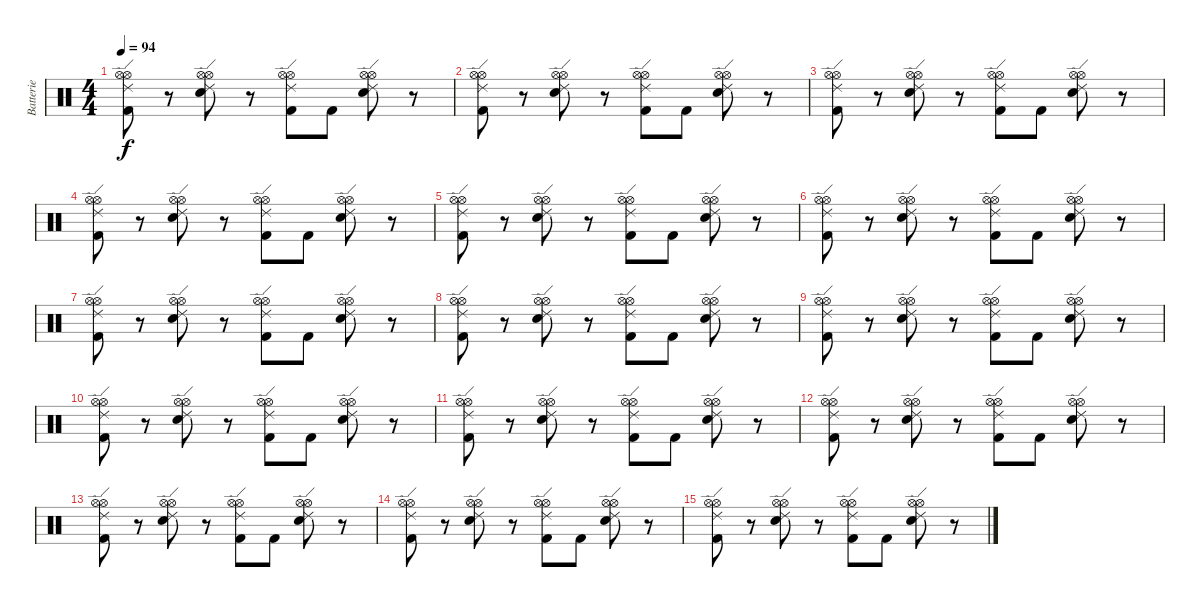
\track ("Batterie" "Batterie") {instrument percussion}
\staff {score}
\articulation defaults
\ts (4 4)
\tempo 94
\clef neutral
\ks c
("Hi-Hat (open)" "Hi-Hat (open)" "Ride (edge) 2" "Kick (hit) 2").8{dy f} r.8 ("Snare (hit) 2" "Hi-Hat (open)" "Hi-Hat (open)" "Ride (edge) 2").8 r.8 ("Hi-Hat (open)" "Hi-Hat (open)" "Ride (edge) 2" "Kick (hit) 2").8 "Kick (hit) 2".8 ("Snare (hit) 2" "Hi-Hat (open)" "Hi-Hat (open)" "Ride (edge) 2").8 r.8 |
("Hi-Hat (open)" "Hi-Hat (open)" "Ride (edge) 2" "Kick (hit) 2").8 r.8 ("Snare (hit) 2" "Hi-Hat (open)" "Hi-Hat (open)" "Ride (edge) 2").8 r.8 ("Hi-Hat (open)" "Hi-Hat (open)" "Ride (edge) 2" "Kick (hit) 2").8 "Kick (hit) 2".8 ("Snare (hit) 2" "Hi-Hat (open)" "Hi-Hat (open)" "Ride (edge) 2").8 r.8 |
("Hi-Hat (open)" "Hi-Hat (open)" "Ride (edge) 2" "Kick (hit) 2").8 r.8 ("Snare (hit) 2" "Hi-Hat (open)" "Hi-Hat (open)" "Ride (edge) 2").8 r.8 ("Hi-Hat (open)" "Hi-Hat (open)" "Ride (edge) 2" "Kick (hit) 2").8 "Kick (hit) 2".8 ("Snare (hit) 2" "Hi-Hat (open)" "Hi-Hat (open)" "Ride (edge) 2").8 r.8 |
("Hi-Hat (open)" "Hi-Hat (open)" "Ride (edge) 2" "Kick (hit) 2").8 r.8 ("Snare (hit) 2" "Hi-Hat (open)" "Hi-Hat (open)" "Ride (edge) 2").8 r.8 ("Hi-Hat (open)" "Hi-Hat (open)" "Ride (edge) 2" "Kick (hit) 2").8 "Kick (hit) 2".8 ("Snare (hit) 2" "Hi-Hat (open)" "Hi-Hat (open)" "Ride (edge) 2").8 r.8 |
("Hi-Hat (open)" "Hi-Hat (open)" "Ride (edge) 2" "Kick (hit) 2").8 r.8 ("Snare (hit) 2" "Hi-Hat (open)" "Hi-Hat (open)" "Ride (edge) 2").8 r.8 ("Hi-Hat (open)" "Hi-Hat (open)" "Ride (edge) 2" "Kick (hit) 2").8 "Kick (hit) 2".8 ("Snare (hit) 2" "Hi-Hat (open)" "Hi-Hat (open)" "Ride (edge) 2").8 r.8 |
("Hi-Hat (open)" "Hi-Hat (open)" "Ride (edge) 2" "Kick (hit) 2").8 r.8 ("Snare (hit) 2" "Hi-Hat (open)" "Hi-Hat (open)" "Ride (edge) 2").8 r.8 ("Hi-Hat (open)" "Hi-Hat (open)" "Ride (edge) 2" "Kick (hit) 2").8 "Kick (hit) 2".8 ("Snare (hit) 2" "Hi-Hat (open)" "Hi-Hat (open)" "Ride (edge) 2").8 r.8 |
("Hi-Hat (open)" "Hi-Hat (open)" "Ride (edge) 2" "Kick (hit) 2").8 r.8 ("Snare (hit) 2" "Hi-Hat (open)" "Hi-Hat (open)" "Ride (edge) 2").8 r.8 ("Hi-Hat (open)" "Hi-Hat (open)" "Ride (edge) 2" "Kick (hit) 2").8 "Kick (hit) 2".8 ("Snare (hit) 2" "Hi-Hat (open)" "Hi-Hat (open)" "Ride (edge) 2").8 r.8 |
("Hi-Hat (open)" "Hi-Hat (open)" "Ride (edge) 2" "Kick (hit) 2").8 r.8 ("Snare (hit) 2" "Hi-Hat (open)" "Hi-Hat (open)" "Ride (edge) 2").8 r.8 ("Hi-Hat (open)" "Hi-Hat (open)" "Ride (edge) 2" "Kick (hit) 2").8 "Kick (hit) 2".8 ("Snare (hit) 2" "Hi-Hat (open)" "Hi-Hat (open)" "Ride (edge) 2").8 r.8 |
("Hi-Hat (open)" "Hi-Hat (open)" "Ride (edge) 2" "Kick (hit) 2").8 r.8 ("Snare (hit) 2" "Hi-Hat (open)" "Hi-Hat (open)" "Ride (edge) 2").8 r.8 ("Hi-Hat (open)" "Hi-Hat (open)" "Ride (edge) 2" "Kick (hit) 2").8 "Kick (hit) 2".8 ("Snare (hit) 2" "Hi-Hat (open)" "Hi-Hat (open)" "Ride (edge) 2").8 r.8 |
("Hi-Hat (open)" "Hi-Hat (open)" "Ride (edge) 2" "Kick (hit) 2").8 r.8 ("Snare (hit) 2" "Hi-Hat (open)" "Hi-Hat (open)" "Ride (edge) 2").8 r.8 ("Hi-Hat (open)" "Hi-Hat (open)" "Ride (edge) 2" "Kick (hit) 2").8 "Kick (hit) 2".8 ("Snare (hit) 2" "Hi-Hat (open)" "Hi-Hat (open)" "Ride (edge) 2").8 r.8 |
("Hi-Hat (open)" "Hi-Hat (open)" "Ride (edge) 2" "Kick (hit) 2").8 r.8 ("Snare (hit) 2" "Hi-Hat (open)" "Hi-Hat (open)" "Ride (edge) 2").8 r.8 ("Hi-Hat (open)" "Hi-Hat (open)" "Ride (edge) 2" "Kick (hit) 2").8 "Kick (hit) 2".8 ("Snare (hit) 2" "Hi-Hat (open)" "Hi-Hat (open)" "Ride (edge) 2").8 r.8 |
("Hi-Hat (open)" "Hi-Hat (open)" "Ride (edge) 2" "Kick (hit) 2").8 r.8 ("Snare (hit) 2" "Hi-Hat (open)" "Hi-Hat (open)" "Ride (edge) 2").8 r.8 ("Hi-Hat (open)" "Hi-Hat (open)" "Ride (edge) 2" "Kick (hit) 2").8 "Kick (hit) 2".8 ("Snare (hit) 2" "Hi-Hat (open)" "Hi-Hat (open)" "Ride (edge) 2").8 r.8 |
("Hi-Hat (open)" "Hi-Hat (open)" "Ride (edge) 2" "Kick (hit) 2").8 r.8 ("Snare (hit) 2" "Hi-Hat (open)" "Hi-Hat (open)" "Ride (edge) 2").8 r.8 ("Hi-Hat (open)" "Hi-Hat (open)" "Ride (edge) 2" "Kick (hit) 2").8 "Kick (hit) 2".8 ("Snare (hit) 2" "Hi-Hat (open)" "Hi-Hat (open)" "Ride (edge) 2").8 r.8 |
("Hi-Hat (open)" "Hi-Hat (open)" "Ride (edge) 2" "Kick (hit) 2").8 r.8 ("Snare (hit) 2" "Hi-Hat (open)" "Hi-Hat (open)" "Ride (edge) 2").8 r.8 ("Hi-Hat (open)" "Hi-Hat (open)" "Ride (edge) 2" "Kick (hit) 2").8 "Kick (hit) 2".8 ("Snare (hit) 2" "Hi-Hat (open)" "Hi-Hat (open)" "Ride (edge) 2").8 r.8 |
("Hi-Hat (open)" "Hi-Hat (open)" "Ride (edge) 2" "Kick (hit) 2").8 r.8 ("Snare (hit) 2" "Hi-Hat (open)" "Hi-Hat (open)" "Ride (edge) 2").8 r.8 ("Hi-Hat (open)" "Hi-Hat (open)" "Ride (edge) 2" "Kick (hit) 2").8 "Kick (hit) 2".8 ("Snare (hit) 2" "Hi-Hat (open)" "Hi-Hat (open)" "Ride (edge) 2").8 r.8
